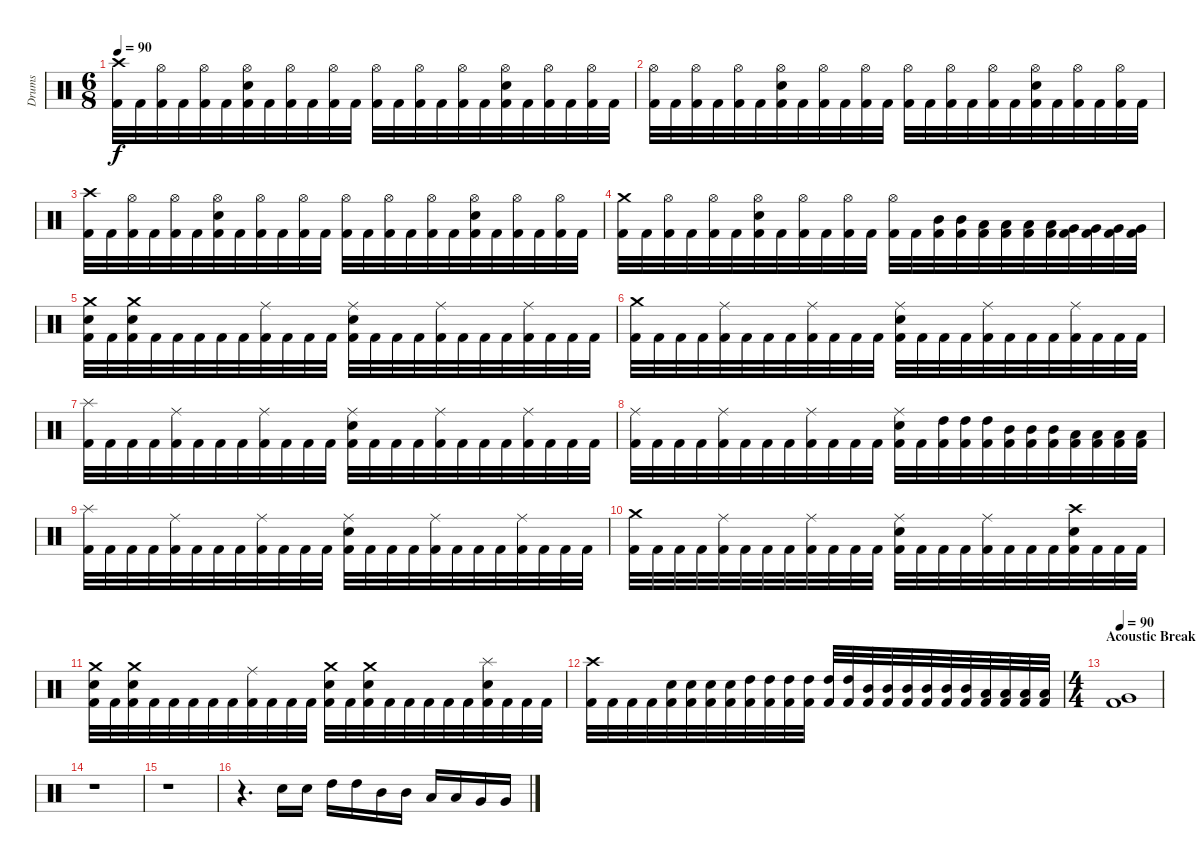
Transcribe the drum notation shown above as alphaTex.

\track ("Drums" "Drums") {instrument percussion}
\staff {score}
\articulation defaults
\ts (6 8)
\tempo 90
\clef neutral
\ks c
("Kick (hit) 2" "Crash high (hit)").32{dy f} "Kick (hit) 2".32 ("Kick (hit) 2" "Hi-Hat (open)").32 "Kick (hit) 2".32 ("Kick (hit) 2" "Hi-Hat (open)").32 "Kick (hit) 2".32 ("Kick (hit) 2" "Electric Snare (hit)" "Hi-Hat (open)").32 "Kick (hit) 2".32 ("Kick (hit) 2" "Hi-Hat (open)").32 "Kick (hit) 2".32 ("Kick (hit) 2" "Hi-Hat (open)").32 "Kick (hit) 2".32 ("Kick (hit) 2" "Hi-Hat (open)").32 "Kick (hit) 2".32 ("Kick (hit) 2" "Hi-Hat (open)").32 "Kick (hit) 2".32 ("Kick (hit) 2" "Hi-Hat (open)").32 "Kick (hit) 2".32 ("Kick (hit) 2" "Electric Snare (hit)" "Hi-Hat (open)").32 "Kick (hit) 2".32 ("Kick (hit) 2" "Hi-Hat (open)").32 "Kick (hit) 2".32 ("Kick (hit) 2" "Hi-Hat (open)").32 "Kick (hit) 2".32 |
("Kick (hit) 2" "Hi-Hat (open)").32 "Kick (hit) 2".32 ("Kick (hit) 2" "Hi-Hat (open)").32 "Kick (hit) 2".32 ("Kick (hit) 2" "Hi-Hat (open)").32 "Kick (hit) 2".32 ("Kick (hit) 2" "Electric Snare (hit)" "Hi-Hat (open)").32 "Kick (hit) 2".32 ("Kick (hit) 2" "Hi-Hat (open)").32 "Kick (hit) 2".32 ("Kick (hit) 2" "Hi-Hat (open)").32 "Kick (hit) 2".32 ("Kick (hit) 2" "Hi-Hat (open)").32 "Kick (hit) 2".32 ("Kick (hit) 2" "Hi-Hat (open)").32 "Kick (hit) 2".32 ("Kick (hit) 2" "Hi-Hat (open)").32 "Kick (hit) 2".32 ("Kick (hit) 2" "Electric Snare (hit)" "Hi-Hat (open)").32 "Kick (hit) 2".32 ("Kick (hit) 2" "Hi-Hat (open)").32 "Kick (hit) 2".32 ("Kick (hit) 2" "Hi-Hat (open)").32 "Kick (hit) 2".32 |
("Kick (hit) 2" "Crash high (hit)").32 "Kick (hit) 2".32 ("Kick (hit) 2" "Hi-Hat (open)").32 "Kick (hit) 2".32 ("Kick (hit) 2" "Hi-Hat (open)").32 "Kick (hit) 2".32 ("Kick (hit) 2" "Electric Snare (hit)" "Hi-Hat (open)").32 "Kick (hit) 2".32 ("Kick (hit) 2" "Hi-Hat (open)").32 "Kick (hit) 2".32 ("Kick (hit) 2" "Hi-Hat (open)").32 "Kick (hit) 2".32 ("Kick (hit) 2" "Hi-Hat (open)").32 "Kick (hit) 2".32 ("Kick (hit) 2" "Hi-Hat (open)").32 "Kick (hit) 2".32 ("Kick (hit) 2" "Hi-Hat (open)").32 "Kick (hit) 2".32 ("Kick (hit) 2" "Electric Snare (hit)" "Hi-Hat (open)").32 "Kick (hit) 2".32 ("Kick (hit) 2" "Hi-Hat (open)").32 "Kick (hit) 2".32 ("Kick (hit) 2" "Hi-Hat (open)").32 "Kick (hit) 2".32 |
("Kick (hit) 2" "Crash medium (hit)").32 "Kick (hit) 2".32 ("Kick (hit) 2" "Hi-Hat (open)").32 "Kick (hit) 2".32 ("Kick (hit) 2" "Hi-Hat (open)").32 "Kick (hit) 2".32 ("Kick (hit) 2" "Electric Snare (hit)" "Hi-Hat (open)").32 "Kick (hit) 2".32 ("Kick (hit) 2" "Hi-Hat (open)").32 "Kick (hit) 2".32 ("Kick (hit) 2" "Hi-Hat (open)").32 "Kick (hit) 2".32 ("Kick (hit) 2" "Hi-Hat (open)").32 "Kick (hit) 2".32 ("Kick (hit) 2" "Mid Tom (hit)").32 ("Kick (hit) 2" "Mid Tom (hit)").32 ("Kick (hit) 2" "Low Tom (hit)").32 ("Kick (hit) 2" "Low Tom (hit)").32 ("Kick (hit) 2" "Low Tom (hit)").32 ("Kick (hit) 2" "Low Tom (hit)").32 ("Kick (hit) 2" "Very Low Tom (hit)").32 ("Kick (hit) 2" "Very Low Tom (hit)").32 ("Kick (hit) 2" "Very Low Tom (hit)").32 ("Kick (hit) 2" "Very Low Tom (hit)").32 |
("Kick (hit) 2" "Electric Snare (hit)" "Crash medium (hit)").32 "Kick (hit) 2".32 ("Kick (hit) 2" "Electric Snare (hit)" "Crash medium (hit)").32 "Kick (hit) 2".32 "Kick (hit) 2".32 "Kick (hit) 2".32 "Kick (hit) 2".32 "Kick (hit) 2".32 ("Kick (hit) 2" "Ride (middle)").32 "Kick (hit) 2".32 "Kick (hit) 2".32 "Kick (hit) 2".32 ("Kick (hit) 2" "Electric Snare (hit)" "Ride (middle)").32 "Kick (hit) 2".32 "Kick (hit) 2".32 "Kick (hit) 2".32 ("Kick (hit) 2" "Ride (middle)").32 "Kick (hit) 2".32 "Kick (hit) 2".32 "Kick (hit) 2".32 ("Kick (hit) 2" "Ride (middle)").32 "Kick (hit) 2".32 "Kick (hit) 2".32 "Kick (hit) 2".32 |
("Kick (hit) 2" "Crash medium (hit)").32 "Kick (hit) 2".32 "Kick (hit) 2".32 "Kick (hit) 2".32 ("Kick (hit) 2" "Ride (middle)").32 "Kick (hit) 2".32 "Kick (hit) 2".32 "Kick (hit) 2".32 ("Kick (hit) 2" "Ride (middle)").32 "Kick (hit) 2".32 "Kick (hit) 2".32 "Kick (hit) 2".32 ("Kick (hit) 2" "Electric Snare (hit)" "Ride (middle)").32 "Kick (hit) 2".32 "Kick (hit) 2".32 "Kick (hit) 2".32 ("Kick (hit) 2" "Ride (middle)").32 "Kick (hit) 2".32 "Kick (hit) 2".32 "Kick (hit) 2".32 ("Kick (hit) 2" "Ride (middle)").32 "Kick (hit) 2".32 "Kick (hit) 2".32 "Kick (hit) 2".32 |
("Kick (hit) 2" "Splash (hit)").32 "Kick (hit) 2".32 "Kick (hit) 2".32 "Kick (hit) 2".32 ("Kick (hit) 2" "Ride (middle)").32 "Kick (hit) 2".32 "Kick (hit) 2".32 "Kick (hit) 2".32 ("Kick (hit) 2" "Ride (middle)").32 "Kick (hit) 2".32 "Kick (hit) 2".32 "Kick (hit) 2".32 ("Kick (hit) 2" "Electric Snare (hit)" "Ride (middle)").32 "Kick (hit) 2".32 "Kick (hit) 2".32 "Kick (hit) 2".32 ("Kick (hit) 2" "Ride (middle)").32 "Kick (hit) 2".32 "Kick (hit) 2".32 "Kick (hit) 2".32 ("Kick (hit) 2" "Ride (middle)").32 "Kick (hit) 2".32 "Kick (hit) 2".32 "Kick (hit) 2".32 |
("Kick (hit) 2" "Ride (middle)").32 "Kick (hit) 2".32 "Kick (hit) 2".32 "Kick (hit) 2".32 ("Kick (hit) 2" "Ride (middle)").32 "Kick (hit) 2".32 "Kick (hit) 2".32 "Kick (hit) 2".32 ("Kick (hit) 2" "Ride (middle)").32 "Kick (hit) 2".32 "Kick (hit) 2".32 "Kick (hit) 2".32 ("Kick (hit) 2" "Electric Snare (hit)" "Ride (middle)").32 "Kick (hit) 2".32 ("Kick (hit) 2" "High Tom (hit)").32 ("Kick (hit) 2" "High Tom (hit)").32 ("Kick (hit) 2" "High Tom (hit)").32 ("Kick (hit) 2" "Mid Tom (hit)").32 ("Kick (hit) 2" "Mid Tom (hit)").32 ("Kick (hit) 2" "Mid Tom (hit)").32 ("Kick (hit) 2" "Low Tom (hit)").32 ("Kick (hit) 2" "Low Tom (hit)").32 ("Kick (hit) 2" "Low Tom (hit)").32 ("Kick (hit) 2" "Low Tom (hit)").32 |
("Kick (hit) 2" "Splash (hit)").32 "Kick (hit) 2".32 "Kick (hit) 2".32 "Kick (hit) 2".32 ("Kick (hit) 2" "Ride (middle)").32 "Kick (hit) 2".32 "Kick (hit) 2".32 "Kick (hit) 2".32 ("Kick (hit) 2" "Ride (middle)").32 "Kick (hit) 2".32 "Kick (hit) 2".32 "Kick (hit) 2".32 ("Kick (hit) 2" "Electric Snare (hit)" "Ride (middle)").32 "Kick (hit) 2".32 "Kick (hit) 2".32 "Kick (hit) 2".32 ("Kick (hit) 2" "Ride (middle)").32 "Kick (hit) 2".32 "Kick (hit) 2".32 "Kick (hit) 2".32 ("Kick (hit) 2" "Ride (middle)").32 "Kick (hit) 2".32 "Kick (hit) 2".32 "Kick (hit) 2".32 |
("Kick (hit) 2" "Crash medium (hit)").32 "Kick (hit) 2".32 "Kick (hit) 2".32 "Kick (hit) 2".32 ("Kick (hit) 2" "Ride (middle)").32 "Kick (hit) 2".32 "Kick (hit) 2".32 "Kick (hit) 2".32 ("Kick (hit) 2" "Ride (middle)").32 "Kick (hit) 2".32 "Kick (hit) 2".32 "Kick (hit) 2".32 ("Kick (hit) 2" "Electric Snare (hit)" "Ride (middle)").32 "Kick (hit) 2".32 "Kick (hit) 2".32 "Kick (hit) 2".32 ("Kick (hit) 2" "Ride (middle)").32 "Kick (hit) 2".32 "Kick (hit) 2".32 "Kick (hit) 2".32 ("Kick (hit) 2" "Electric Snare (hit)" "Crash high (hit)").32 "Kick (hit) 2".32 "Kick (hit) 2".32 "Kick (hit) 2".32 |
("Kick (hit) 2" "Electric Snare (hit)" "Crash medium (hit)").32 "Kick (hit) 2".32 ("Kick (hit) 2" "Electric Snare (hit)" "Crash medium (hit)").32 "Kick (hit) 2".32 "Kick (hit) 2".32 "Kick (hit) 2".32 "Kick (hit) 2".32 "Kick (hit) 2".32 ("Kick (hit) 2" "Ride (middle)").32 "Kick (hit) 2".32 "Kick (hit) 2".32 "Kick (hit) 2".32 ("Kick (hit) 2" "Electric Snare (hit)" "Crash medium (hit)").32 "Kick (hit) 2".32 ("Kick (hit) 2" "Electric Snare (hit)" "Crash medium (hit)").32 "Kick (hit) 2".32 "Kick (hit) 2".32 "Kick (hit) 2".32 "Kick (hit) 2".32 "Kick (hit) 2".32 ("Kick (hit) 2" "Electric Snare (hit)" "Splash (hit)").32 "Kick (hit) 2".32 "Kick (hit) 2".32 "Kick (hit) 2".32 |
("Kick (hit) 2" "Crash high (hit)").32 "Kick (hit) 2".32 "Kick (hit) 2".32 "Kick (hit) 2".32 ("Kick (hit) 2" "Electric Snare (hit)").32 ("Kick (hit) 2" "Electric Snare (hit)").32 ("Kick (hit) 2" "Electric Snare (hit)").32 ("Kick (hit) 2" "Electric Snare (hit)").32 ("Kick (hit) 2" "High Tom (hit)").32 ("Kick (hit) 2" "High Tom (hit)").32 ("Kick (hit) 2" "High Tom (hit)").32 ("Kick (hit) 2" "High Tom (hit)").32 ("Kick (hit) 2" "High Tom (hit)").32 ("Kick (hit) 2" "High Tom (hit)").32 ("Kick (hit) 2" "Mid Tom (hit)").32 ("Kick (hit) 2" "Mid Tom (hit)").32 ("Kick (hit) 2" "Mid Tom (hit)").32 ("Kick (hit) 2" "Mid Tom (hit)").32 ("Kick (hit) 2" "Mid Tom (hit)").32 ("Kick (hit) 2" "Mid Tom (hit)").32 ("Kick (hit) 2" "Low Tom (hit)").32 ("Kick (hit) 2" "Low Tom (hit)").32 ("Kick (hit) 2" "Low Tom (hit)").32 ("Kick (hit) 2" "Low Tom (hit)").32 |
\ts (4 4)
\section ("" "Acoustic Break")
\tempo 90
("Kick (hit) 2" "Very Low Tom (hit)").1 |
r.1 |
r.1 |
r.4{d} "Electric Snare (hit)".16 "Electric Snare (hit)".16 "High Tom (hit)".16 "High Tom (hit)".16 "Mid Tom (hit)".16 "Mid Tom (hit)".16 "Low Tom (hit)".16 "Low Tom (hit)".16 "Very Low Tom (hit)".16 "Very Low Tom (hit)".16
